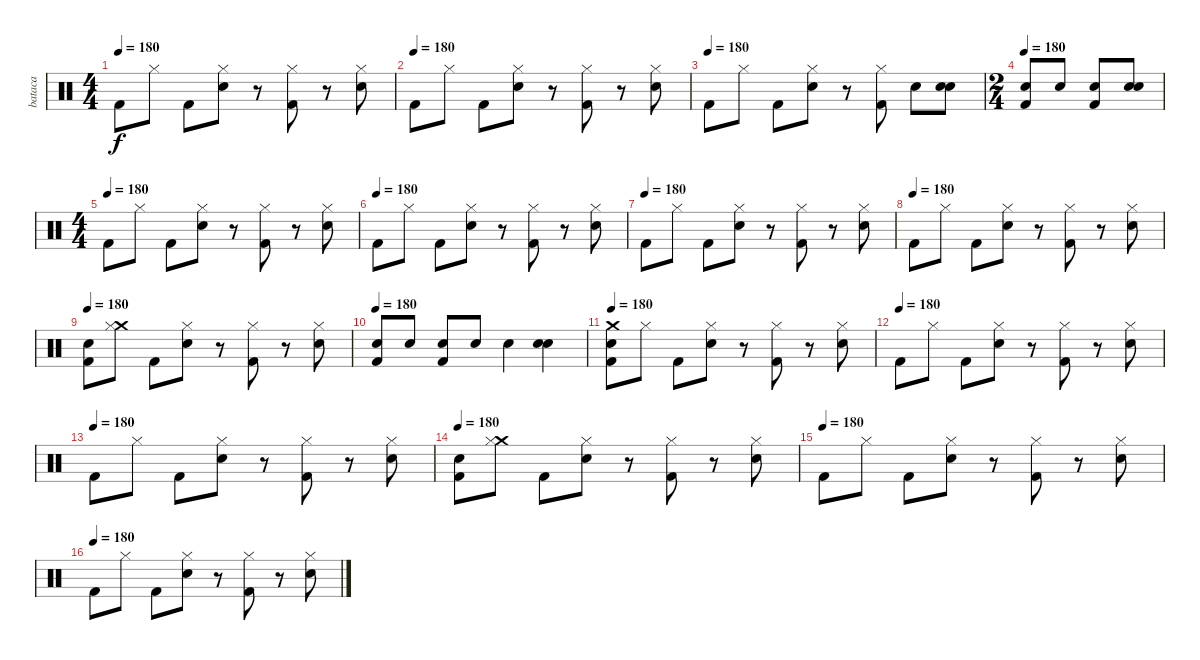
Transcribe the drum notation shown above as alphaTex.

\track ("bataca" "bataca") {instrument percussion}
\staff {score}
\articulation defaults
\ts (4 4)
\tempo 180
\clef neutral
\ks c "Kick (hit) 2".8{dy f} "Hi-Hat (closed)".8 "Kick (hit) 2".8
("Hi-Hat (closed)" "Snare (hit) 2").8 r.8 ("Hi-Hat (closed)" "Kick (hit) 2").8 r.8 ("Hi-Hat (closed)" "Snare (hit) 2").8 |
\tempo (180)
"Kick (hit) 2".8 "Hi-Hat (closed)".8 "Kick (hit) 2".8 ("Hi-Hat (closed)" "Snare (hit) 2").8 r.8 ("Hi-Hat (closed)" "Kick (hit) 2").8 r.8 ("Hi-Hat (closed)" "Snare (hit) 2").8 |
\tempo (180)
"Kick (hit) 2".8 "Hi-Hat (closed)".8 "Kick (hit) 2".8 ("Hi-Hat (closed)" "Snare (hit) 2").8 r.8 ("Hi-Hat (closed)" "Kick (hit) 2").8 "Snare (hit) 2".8 ("Snare (hit) 2" "Snare (hit) 2").8 |
\ts (2 4)
\tempo 180
("Snare (hit) 2" "Kick (hit) 2").8 "Snare (hit) 2".8 ("Snare (hit) 2" "Kick (hit) 2").8 ("Snare (hit) 2" "Snare (hit) 2").8 |
\ts (4 4)
\tempo (180)
"Kick (hit) 2".8 "Hi-Hat (closed)".8 "Kick (hit) 2".8 ("Hi-Hat (closed)" "Snare (hit) 2").8 r.8 ("Hi-Hat (closed)" "Kick (hit) 2").8 r.8 ("Hi-Hat (closed)" "Snare (hit) 2").8 |
\tempo (180)
"Kick (hit) 2".8 "Hi-Hat (closed)".8 "Kick (hit) 2".8 ("Hi-Hat (closed)" "Snare (hit) 2").8 r.8 ("Hi-Hat (closed)" "Kick (hit) 2").8 r.8 ("Hi-Hat (closed)" "Snare (hit) 2").8 |
\tempo (180)
"Kick (hit) 2".8 "Hi-Hat (closed)".8 "Kick (hit) 2".8 ("Hi-Hat (closed)" "Snare (hit) 2").8 r.8 ("Hi-Hat (closed)" "Kick (hit) 2").8 r.8 ("Hi-Hat (closed)" "Snare (hit) 2").8 |
\tempo (180)
"Kick (hit) 2".8 "Hi-Hat (closed)".8 "Kick (hit) 2".8 ("Hi-Hat (closed)" "Snare (hit) 2").8 r.8 ("Hi-Hat (closed)" "Kick (hit) 2").8 r.8 ("Hi-Hat (closed)" "Snare (hit) 2").8 |
\tempo 180
("Snare (hit) 2" "Kick (hit) 2").8 ("Crash medium (hit)" "Hi-Hat (closed)").8 "Kick (hit) 2".8 ("Hi-Hat (closed)" "Snare (hit) 2").8 r.8 ("Hi-Hat (closed)" "Kick (hit) 2").8 r.8 ("Hi-Hat (closed)" "Snare (hit) 2").8 |
\tempo 180
("Snare (hit) 2" "Kick (hit) 2").8 "Snare (hit) 2".8 ("Snare (hit) 2" "Kick (hit) 2").8 "Snare (hit) 2".8 "Snare (hit) 2".4 ("Snare (hit) 2" "Snare (hit) 2").4 |
\tempo 180
("Crash medium (hit)" "Snare (hit) 2" "Kick (hit) 2").8 "Hi-Hat (closed)".8 "Kick (hit) 2".8 ("Hi-Hat (closed)" "Snare (hit) 2").8 r.8 ("Hi-Hat (closed)" "Kick (hit) 2").8 r.8 ("Hi-Hat (closed)" "Snare (hit) 2").8 |
\tempo (180)
"Kick (hit) 2".8 "Hi-Hat (closed)".8 "Kick (hit) 2".8 ("Hi-Hat (closed)" "Snare (hit) 2").8 r.8 ("Hi-Hat (closed)" "Kick (hit) 2").8 r.8 ("Hi-Hat (closed)" "Snare (hit) 2").8 |
\tempo (180)
"Kick (hit) 2".8 "Hi-Hat (closed)".8 "Kick (hit) 2".8 ("Hi-Hat (closed)" "Snare (hit) 2").8 r.8 ("Hi-Hat (closed)" "Kick (hit) 2").8 r.8 ("Hi-Hat (closed)" "Snare (hit) 2").8 |
\tempo 180
("Snare (hit) 2" "Kick (hit) 2").8 ("Crash medium (hit)" "Hi-Hat (closed)").8 "Kick (hit) 2".8 ("Hi-Hat (closed)" "Snare (hit) 2").8 r.8 ("Hi-Hat (closed)" "Kick (hit) 2").8 r.8 ("Hi-Hat (closed)" "Snare (hit) 2").8 |
\tempo (180)
"Kick (hit) 2".8 "Hi-Hat (closed)".8 "Kick (hit) 2".8 ("Hi-Hat (closed)" "Snare (hit) 2").8 r.8 ("Hi-Hat (closed)" "Kick (hit) 2").8 r.8 ("Hi-Hat (closed)" "Snare (hit) 2").8 |
\tempo (180)
"Kick (hit) 2".8 "Hi-Hat (closed)".8 "Kick (hit) 2".8 ("Hi-Hat (closed)" "Snare (hit) 2").8 r.8 ("Hi-Hat (closed)" "Kick (hit) 2").8 r.8 ("Hi-Hat (closed)" "Snare (hit) 2").8
